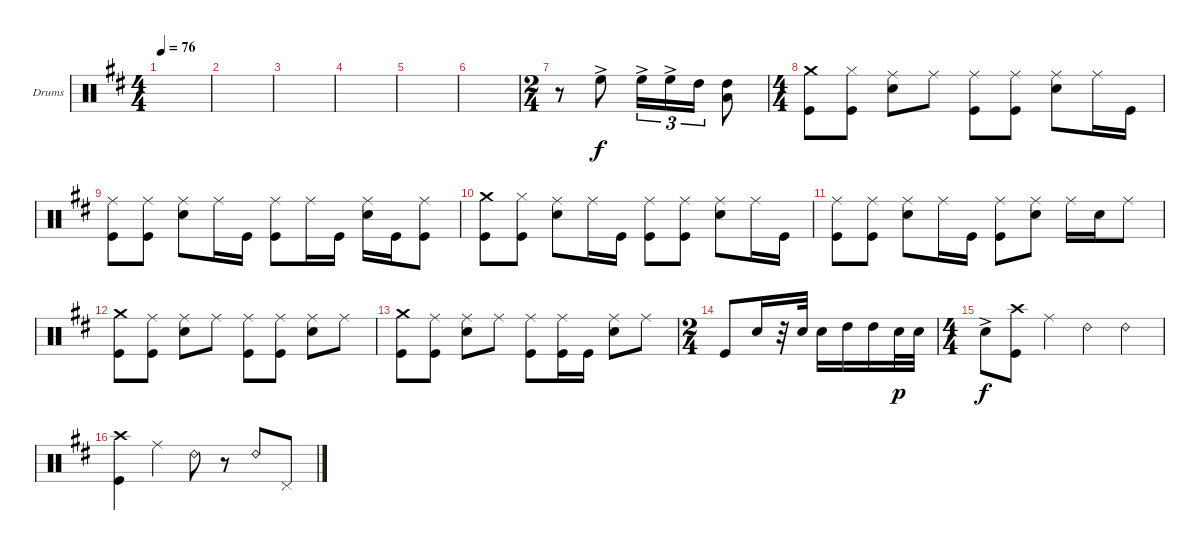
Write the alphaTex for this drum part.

\defaultSystemsLayout 4
\bracketExtendMode groupsimilarinstruments
\firstSystemTrackNameOrientation horizontal
\otherSystemsTrackNameOrientation horizontal
\track ("Drumkit (Collins)" "Drums") {instrument percussion}
\staff {score}
\articulation defaults
\ts (4 4)
\scale
0.5
\tempo 76
\accidentals auto
\clef neutral
\ottava regular
\simile none
\ks d
|
\scale
0.5 |
\scale
0.5 |
\scale
0.5 |
\scale
0.434211 |
\scale
0.565789 |
\ts (2 4)
\scale
0.517143 r.8 "High Floor Tom (hit)"{ac}.8 "High Floor Tom (hit)"{ac}.16{tu (3 2)} "High Floor Tom (hit)"{ac}.16{tu (3 2)} "High Tom (hit)".16{tu (3 2)} ("Low Tom (hit)" "High Tom (hit)").8 |
\ts (4 4)
\scale
0.482857 ("Crash medium (hit)" "Kick (hit)").8 ("Kick (hit)" "Hi-Hat (closed)").8 ("Snare (hit) 2" "Ride (middle)").8 "Ride (middle)".8 ("Ride (middle)" "Kick (hit)").8 ("Ride (middle)" "Kick (hit)").8 ("Ride (middle)" "Snare (hit) 2").8 "Ride (middle)".16 "Kick (hit)".16 |
\scale
0.5 ("Ride (middle)" "Kick (hit)").8 ("Kick (hit)" "Ride (middle)").8 ("Ride (middle)" "Snare (hit) 2").8 "Ride (middle)".16 "Kick (hit)".16 ("Ride (middle)" "Kick (hit)").8 "Ride (middle)".16 "Kick (hit)".16 ("Snare (hit) 2" "Ride (middle)").16 "Kick (hit)".16 ("Kick (hit)" "Ride (middle)").8 |
\scale
0.5 ("Crash medium (hit)" "Kick (hit)").8 ("Kick (hit)" "Hi-Hat (closed)").8 ("Snare (hit) 2" "Ride (middle)").8 "Ride (middle)".16 "Kick (hit)".16 ("Ride (middle)" "Kick (hit)").8 ("Ride (middle)" "Kick (hit)").8 ("Ride (middle)" "Snare (hit) 2").8 "Ride (middle)".16 "Kick (hit)".16 |
\scale
0.561644 ("Ride (middle)" "Kick (hit)").8 ("Kick (hit)" "Ride (middle)").8 ("Ride (middle)" "Snare (hit) 2").8 "Ride (middle)".16 "Kick (hit)".16 ("Ride (middle)" "Kick (hit)").8 ("Ride (middle)" "Snare (hit) 2").8 "Ride (middle)".16 "Snare (hit) 2".16 "Ride (middle)".8 |
\scale
0.438356 ("Crash medium (hit)" "Kick (hit)").8 ("Kick (hit)" "Ride (middle)").8 ("Snare (hit) 2" "Ride (middle)").8 "Ride (middle)".8 ("Ride (middle)" "Kick (hit)").8 ("Ride (middle)" "Kick (hit)").8 ("Ride (middle)" "Snare (hit) 2").8 "Ride (middle)".8 |
\scale
0.408551 ("Crash medium (hit)" "Kick (hit)").8 ("Kick (hit)" "Ride (middle)").8 ("Snare (hit) 2" "Ride (middle)").8 "Ride (middle)".8 ("Ride (middle)" "Kick (hit)").8 ("Kick (hit)" "Ride (middle)").16 "Kick (hit)".16 ("Ride (middle)" "Snare (hit) 2").8 "Ride (middle)".8 |
\ts (2 4)
\scale
0.591449 "Kick (hit)".8 "Snare (hit) 2".16 r.32 "Snare (hit) 2".32 "Snare (hit) 2".16 "High Tom (hit)".16 "High Tom (hit)".16 "Snare (hit) 2".32{dy p} "Snare (hit) 2".32 |
\ts (4 4)
\scale
0.561462 "Snare (hit) 2"{ac}.8{dy f} ("Kick (hit)" "Crash high (hit)").8 "Ride (middle)".4 "Ride (bell) 2".4 "Ride (bell) 2".4 |
\scale
0.438538 ("Kick (hit)" "Crash high (hit)").4 "Ride (middle)".4 "Ride (bell) 2".8 r.8 "Ride (bell) 2".8 "Pedal Hi-Hat (hit)".8
